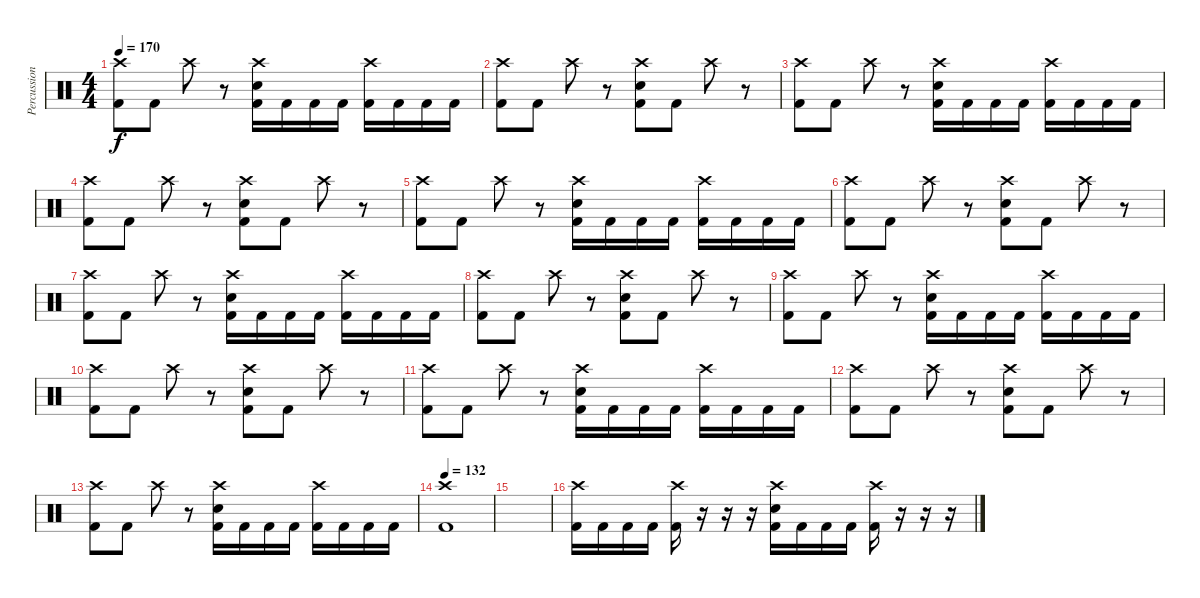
\track ("Percussion" "Percussion") {instrument percussion}
\staff {score}
\articulation defaults
\ts (4 4)
\tempo 170
\clef neutral
\ks c
("Crash high (hit)" "Kick (hit) 2").8{dy f} "Kick (hit) 2".8 "Crash high (hit)".8 r.8 ("Crash high (hit)" "Electric Snare (hit)" "Kick (hit) 2").16 "Kick (hit) 2".16 "Kick (hit) 2".16 "Kick (hit) 2".16 ("Crash high (hit)" "Kick (hit) 2").16 "Kick (hit) 2".16 "Kick (hit) 2".16 "Kick (hit) 2".16 |
("Crash high (hit)" "Kick (hit) 2").8 "Kick (hit) 2".8 "Crash high (hit)".8 r.8 ("Crash high (hit)" "Electric Snare (hit)" "Kick (hit) 2").8 "Kick (hit) 2".8 "Crash high (hit)".8 r.8 |
("Crash high (hit)" "Kick (hit) 2").8 "Kick (hit) 2".8 "Crash high (hit)".8 r.8 ("Crash high (hit)" "Electric Snare (hit)" "Kick (hit) 2").16 "Kick (hit) 2".16 "Kick (hit) 2".16 "Kick (hit) 2".16 ("Crash high (hit)" "Kick (hit) 2").16 "Kick (hit) 2".16 "Kick (hit) 2".16 "Kick (hit) 2".16 |
("Crash high (hit)" "Kick (hit) 2").8 "Kick (hit) 2".8 "Crash high (hit)".8 r.8 ("Crash high (hit)" "Electric Snare (hit)" "Kick (hit) 2").8 "Kick (hit) 2".8 "Crash high (hit)".8 r.8 |
("Crash high (hit)" "Kick (hit) 2").8 "Kick (hit) 2".8 "Crash high (hit)".8 r.8 ("Crash high (hit)" "Electric Snare (hit)" "Kick (hit) 2").16 "Kick (hit) 2".16 "Kick (hit) 2".16 "Kick (hit) 2".16 ("Crash high (hit)" "Kick (hit) 2").16 "Kick (hit) 2".16 "Kick (hit) 2".16 "Kick (hit) 2".16 |
("Crash high (hit)" "Kick (hit) 2").8 "Kick (hit) 2".8 "Crash high (hit)".8 r.8 ("Crash high (hit)" "Electric Snare (hit)" "Kick (hit) 2").8 "Kick (hit) 2".8 "Crash high (hit)".8 r.8 |
("Crash high (hit)" "Kick (hit) 2").8 "Kick (hit) 2".8 "Crash high (hit)".8 r.8 ("Crash high (hit)" "Electric Snare (hit)" "Kick (hit) 2").16 "Kick (hit) 2".16 "Kick (hit) 2".16 "Kick (hit) 2".16 ("Crash high (hit)" "Kick (hit) 2").16 "Kick (hit) 2".16 "Kick (hit) 2".16 "Kick (hit) 2".16 |
("Crash high (hit)" "Kick (hit) 2").8 "Kick (hit) 2".8 "Crash high (hit)".8 r.8 ("Crash high (hit)" "Electric Snare (hit)" "Kick (hit) 2").8 "Kick (hit) 2".8 "Crash high (hit)".8 r.8 |
("Crash high (hit)" "Kick (hit) 2").8 "Kick (hit) 2".8 "Crash high (hit)".8 r.8 ("Crash high (hit)" "Electric Snare (hit)" "Kick (hit) 2").16 "Kick (hit) 2".16 "Kick (hit) 2".16 "Kick (hit) 2".16 ("Crash high (hit)" "Kick (hit) 2").16 "Kick (hit) 2".16 "Kick (hit) 2".16 "Kick (hit) 2".16 |
("Crash high (hit)" "Kick (hit) 2").8 "Kick (hit) 2".8 "Crash high (hit)".8 r.8 ("Crash high (hit)" "Electric Snare (hit)" "Kick (hit) 2").8 "Kick (hit) 2".8 "Crash high (hit)".8 r.8 |
("Crash high (hit)" "Kick (hit) 2").8 "Kick (hit) 2".8 "Crash high (hit)".8 r.8 ("Crash high (hit)" "Electric Snare (hit)" "Kick (hit) 2").16 "Kick (hit) 2".16 "Kick (hit) 2".16 "Kick (hit) 2".16 ("Crash high (hit)" "Kick (hit) 2").16 "Kick (hit) 2".16 "Kick (hit) 2".16 "Kick (hit) 2".16 |
("Crash high (hit)" "Kick (hit) 2").8 "Kick (hit) 2".8 "Crash high (hit)".8 r.8 ("Crash high (hit)" "Electric Snare (hit)" "Kick (hit) 2").8 "Kick (hit) 2".8 "Crash high (hit)".8 r.8 |
("Crash high (hit)" "Kick (hit) 2").8 "Kick (hit) 2".8 "Crash high (hit)".8 r.8 ("Crash high (hit)" "Electric Snare (hit)" "Kick (hit) 2").16 "Kick (hit) 2".16 "Kick (hit) 2".16 "Kick (hit) 2".16 ("Crash high (hit)" "Kick (hit) 2").16 "Kick (hit) 2".16 "Kick (hit) 2".16 "Kick (hit) 2".16 |
\tempo 132
("Crash high (hit)" "Kick (hit) 2").1 |
|
("Crash high (hit)" "Kick (hit) 2").16 "Kick (hit) 2".16 "Kick (hit) 2".16 "Kick (hit) 2".16 ("Crash high (hit)" "Kick (hit) 2").16 r.16 r.16 r.16 ("Crash high (hit)" "Electric Snare (hit)" "Kick (hit) 2").16 "Kick (hit) 2".16 "Kick (hit) 2".16 "Kick (hit) 2".16 ("Crash high (hit)" "Kick (hit) 2").16 r.16 r.16 r.16
